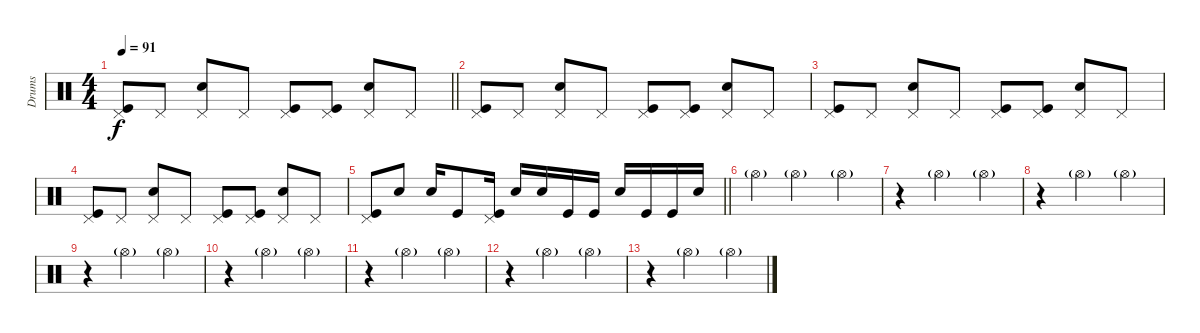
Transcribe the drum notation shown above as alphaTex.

\track ("Drums" "Drums") {instrument percussion}
\staff {score}
\articulation defaults
\ts (4 4)
\tempo 91
\clef neutral
\barLineRight lightlight
\ks c
("Kick (hit)" "Pedal Hi-Hat (hit)").8{dy f} "Pedal Hi-Hat (hit)".8 ("Snare (hit) 2" "Pedal Hi-Hat (hit)").8 "Pedal Hi-Hat (hit)".8 ("Kick (hit)" "Pedal Hi-Hat (hit)").8 ("Kick (hit)" "Pedal Hi-Hat (hit)").8 ("Snare (hit) 2" "Pedal Hi-Hat (hit)").8 "Pedal Hi-Hat (hit)".8 |
("Kick (hit)" "Pedal Hi-Hat (hit)").8 "Pedal Hi-Hat (hit)".8 ("Snare (hit) 2" "Pedal Hi-Hat (hit)").8 "Pedal Hi-Hat (hit)".8 ("Kick (hit)" "Pedal Hi-Hat (hit)").8 ("Kick (hit)" "Pedal Hi-Hat (hit)").8 ("Snare (hit) 2" "Pedal Hi-Hat (hit)").8 "Pedal Hi-Hat (hit)".8 |
("Kick (hit)" "Pedal Hi-Hat (hit)").8 "Pedal Hi-Hat (hit)".8 ("Snare (hit) 2" "Pedal Hi-Hat (hit)").8 "Pedal Hi-Hat (hit)".8 ("Kick (hit)" "Pedal Hi-Hat (hit)").8 ("Kick (hit)" "Pedal Hi-Hat (hit)").8 ("Snare (hit) 2" "Pedal Hi-Hat (hit)").8 "Pedal Hi-Hat (hit)".8 |
("Kick (hit)" "Pedal Hi-Hat (hit)").8 "Pedal Hi-Hat (hit)".8 ("Snare (hit) 2" "Pedal Hi-Hat (hit)").8 "Pedal Hi-Hat (hit)".8 ("Kick (hit)" "Pedal Hi-Hat (hit)").8 ("Kick (hit)" "Pedal Hi-Hat (hit)").8 ("Snare (hit) 2" "Pedal Hi-Hat (hit)").8 "Pedal Hi-Hat (hit)".8 |
\barLineRight lightlight
("Kick (hit)" "Pedal Hi-Hat (hit)").8 "Snare (hit) 2".8 "Snare (hit) 2".16 "Kick (hit)".8 ("Kick (hit)" "Pedal Hi-Hat (hit)").16 "Snare (hit) 2".16 "Snare (hit) 2".16 "Kick (hit)".16 "Kick (hit)".16 "Snare (hit) 2".16 "Kick (hit)".16 "Kick (hit)".16 "Snare (hit) 2".16 |
"Hi-Hat (open)"{g}.4{volume 2} "Hi-Hat (open)"{g}.2 "Hi-Hat (open)"{g}.4 |
r.4 "Hi-Hat (open)"{g}.2 "Hi-Hat (open)"{g}.4 |
r.4 "Hi-Hat (open)"{g}.2 "Hi-Hat (open)"{g}.4 |
r.4 "Hi-Hat (open)"{g}.2 "Hi-Hat (open)"{g}.4 |
r.4 "Hi-Hat (open)"{g}.2 "Hi-Hat (open)"{g}.4 |
r.4 "Hi-Hat (open)"{g}.2 "Hi-Hat (open)"{g}.4 |
r.4 "Hi-Hat (open)"{g}.2 "Hi-Hat (open)"{g}.4 |
r.4 "Hi-Hat (open)"{g}.2 "Hi-Hat (open)"{g}.4
